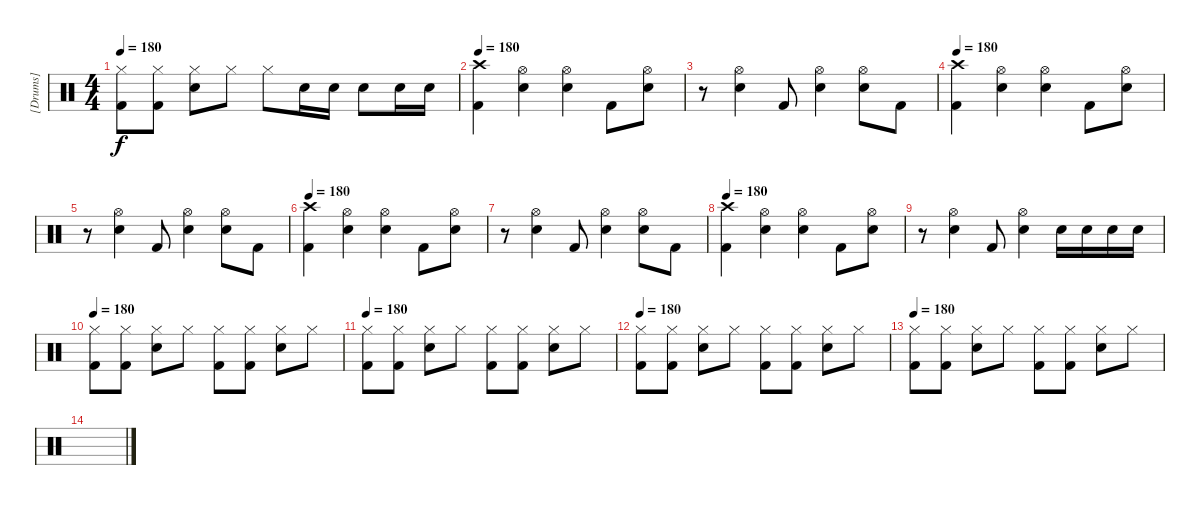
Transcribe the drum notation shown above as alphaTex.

\track ("[Drums]" "[Drums]") {instrument percussion}
\staff {score}
\articulation defaults
\ts (4 4)
\tempo 180
\clef neutral
\ks c
("Hi-Hat (closed)" "Kick (hit) 2").8{dy f} ("Hi-Hat (closed)" "Kick (hit) 2").8 ("Hi-Hat (closed)" "Snare (hit) 2").8 "Hi-Hat (closed)".8 "Hi-Hat (closed)".8 "Snare (hit) 2".16 "Snare (hit) 2".16 "Snare (hit) 2".8 "Snare (hit) 2".16 "Snare (hit) 2".16 |
\section ("" "")
\tempo 180
("Crash high (hit)" "Kick (hit) 2").4 ("Hi-Hat (open)" "Snare (hit) 2").4 ("Hi-Hat (open)" "Snare (hit) 2").4 "Kick (hit) 2".8 ("Hi-Hat (open)" "Snare (hit) 2").8 |
r.8 ("Hi-Hat (open)" "Snare (hit) 2").4 "Kick (hit) 2".8 ("Hi-Hat (open)" "Snare (hit) 2").4 ("Hi-Hat (open)" "Snare (hit) 2").8 "Kick (hit) 2".8 |
\tempo 180
("Crash high (hit)" "Kick (hit) 2").4 ("Hi-Hat (open)" "Snare (hit) 2").4 ("Hi-Hat (open)" "Snare (hit) 2").4 "Kick (hit) 2".8 ("Hi-Hat (open)" "Snare (hit) 2").8 |
r.8 ("Hi-Hat (open)" "Snare (hit) 2").4 "Kick (hit) 2".8 ("Hi-Hat (open)" "Snare (hit) 2").4 ("Hi-Hat (open)" "Snare (hit) 2").8 "Kick (hit) 2".8 |
\tempo 180
("Crash high (hit)" "Kick (hit) 2").4 ("Hi-Hat (open)" "Snare (hit) 2").4 ("Hi-Hat (open)" "Snare (hit) 2").4 "Kick (hit) 2".8 ("Hi-Hat (open)" "Snare (hit) 2").8 |
r.8 ("Hi-Hat (open)" "Snare (hit) 2").4 "Kick (hit) 2".8 ("Hi-Hat (open)" "Snare (hit) 2").4 ("Hi-Hat (open)" "Snare (hit) 2").8 "Kick (hit) 2".8 |
\tempo 180
("Crash high (hit)" "Kick (hit) 2").4 ("Hi-Hat (open)" "Snare (hit) 2").4 ("Hi-Hat (open)" "Snare (hit) 2").4 "Kick (hit) 2".8 ("Hi-Hat (open)" "Snare (hit) 2").8 |
r.8 ("Hi-Hat (open)" "Snare (hit) 2").4 "Kick (hit) 2".8 ("Hi-Hat (open)" "Snare (hit) 2").4 "Snare (hit) 2".16 "Snare (hit) 2".16 "Snare (hit) 2".16 "Snare (hit) 2".16 |
\section ("" "")
\tempo 180
("Hi-Hat (closed)" "Kick (hit) 2").8 ("Hi-Hat (closed)" "Kick (hit) 2").8 ("Hi-Hat (closed)" "Snare (hit) 2").8 "Hi-Hat (closed)".8 ("Hi-Hat (closed)" "Kick (hit) 2").8 ("Hi-Hat (closed)" "Kick (hit) 2").8 ("Hi-Hat (closed)" "Snare (hit) 2").8 "Hi-Hat (closed)".8 |
\tempo 180
("Hi-Hat (closed)" "Kick (hit) 2").8 ("Hi-Hat (closed)" "Kick (hit) 2").8 ("Hi-Hat (closed)" "Snare (hit) 2").8 "Hi-Hat (closed)".8 ("Hi-Hat (closed)" "Kick (hit) 2").8 ("Hi-Hat (closed)" "Kick (hit) 2").8 ("Hi-Hat (closed)" "Snare (hit) 2").8 "Hi-Hat (closed)".8 |
\tempo 180
("Hi-Hat (closed)" "Kick (hit) 2").8 ("Hi-Hat (closed)" "Kick (hit) 2").8 ("Hi-Hat (closed)" "Snare (hit) 2").8 "Hi-Hat (closed)".8 ("Hi-Hat (closed)" "Kick (hit) 2").8 ("Hi-Hat (closed)" "Kick (hit) 2").8 ("Hi-Hat (closed)" "Snare (hit) 2").8 "Hi-Hat (closed)".8 |
\tempo 180
("Hi-Hat (closed)" "Kick (hit) 2").8 ("Hi-Hat (closed)" "Kick (hit) 2").8 ("Hi-Hat (closed)" "Snare (hit) 2").8 "Hi-Hat (closed)".8 ("Hi-Hat (closed)" "Kick (hit) 2").8 ("Hi-Hat (closed)" "Kick (hit) 2").8 ("Hi-Hat (closed)" "Snare (hit) 2").8 "Hi-Hat (closed)".8 |
\section ("" "")
